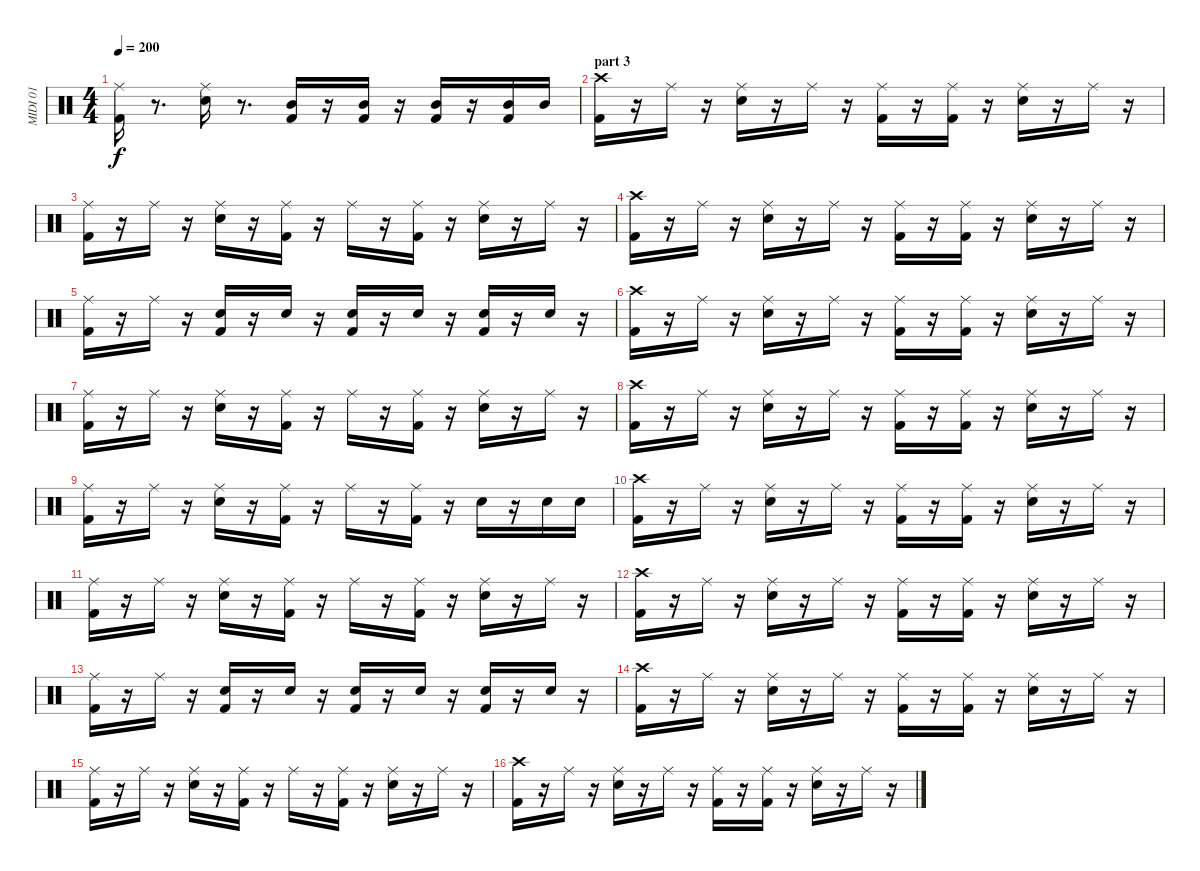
\track ("MIDI 01" "MIDI 01") {instrument percussion}
\staff {score}
\articulation defaults
\ts (4 4)
\tempo 200
\clef neutral
\ks c
("Kick (hit) 2" "Ride (middle)").16{dy f} r.8{d} ("Snare (hit) 2" "Ride (middle)").16 r.8{d} ("Mid Tom (hit)" "Kick (hit) 2").16 r.16 ("Mid Tom (hit)" "Kick (hit) 2").16 r.16 ("Mid Tom (hit)" "Kick (hit) 2").16 r.16 ("Mid Tom (hit)" "Kick (hit) 2").16 "Mid Tom (hit)".16 |
\section ("" "part 3")
("Kick (hit) 2" "Crash high (hit)").16 r.16 "Ride (middle)".16 r.16 ("Snare (hit) 2" "Ride (middle)").16 r.16 "Ride (middle)".16 r.16 ("Kick (hit) 2" "Ride (middle)").16 r.16 ("Kick (hit) 2" "Ride (middle)").16 r.16 ("Snare (hit) 2" "Ride (middle)").16 r.16 "Ride (middle)".16 r.16 |
("Kick (hit) 2" "Ride (middle)").16 r.16 "Ride (middle)".16 r.16 ("Snare (hit) 2" "Ride (middle)").16 r.16 ("Kick (hit) 2" "Ride (middle)").16 r.16 "Ride (middle)".16 r.16 ("Kick (hit) 2" "Ride (middle)").16 r.16 ("Snare (hit) 2" "Ride (middle)").16 r.16 "Ride (middle)".16 r.16 |
("Kick (hit) 2" "Crash high (hit)").16 r.16 "Ride (middle)".16 r.16 ("Snare (hit) 2" "Ride (middle)").16 r.16 "Ride (middle)".16 r.16 ("Kick (hit) 2" "Ride (middle)").16 r.16 ("Kick (hit) 2" "Ride (middle)").16 r.16 ("Snare (hit) 2" "Ride (middle)").16 r.16 "Ride (middle)".16 r.16 |
("Kick (hit) 2" "Ride (middle)").16 r.16 "Ride (middle)".16 r.16 ("Snare (hit) 2" "Kick (hit) 2").16 r.16 "Snare (hit) 2".16 r.16 ("Snare (hit) 2" "Kick (hit) 2").16 r.16 "Snare (hit) 2".16 r.16 ("Snare (hit) 2" "Kick (hit) 2").16 r.16 "Snare (hit) 2".16 r.16 |
("Kick (hit) 2" "Crash high (hit)").16 r.16 "Ride (middle)".16 r.16 ("Snare (hit) 2" "Ride (middle)").16 r.16 "Ride (middle)".16 r.16 ("Kick (hit) 2" "Ride (middle)").16 r.16 ("Kick (hit) 2" "Ride (middle)").16 r.16 ("Snare (hit) 2" "Ride (middle)").16 r.16 "Ride (middle)".16 r.16 |
("Kick (hit) 2" "Ride (middle)").16 r.16 "Ride (middle)".16 r.16 ("Snare (hit) 2" "Ride (middle)").16 r.16 ("Kick (hit) 2" "Ride (middle)").16 r.16 "Ride (middle)".16 r.16 ("Kick (hit) 2" "Ride (middle)").16 r.16 ("Snare (hit) 2" "Ride (middle)").16 r.16 "Ride (middle)".16 r.16 |
("Kick (hit) 2" "Crash high (hit)").16 r.16 "Ride (middle)".16 r.16 ("Snare (hit) 2" "Ride (middle)").16 r.16 "Ride (middle)".16 r.16 ("Kick (hit) 2" "Ride (middle)").16 r.16 ("Kick (hit) 2" "Ride (middle)").16 r.16 ("Snare (hit) 2" "Ride (middle)").16 r.16 "Ride (middle)".16 r.16 |
("Kick (hit) 2" "Ride (middle)").16 r.16 "Ride (middle)".16 r.16 ("Snare (hit) 2" "Ride (middle)").16 r.16 ("Kick (hit) 2" "Ride (middle)").16 r.16 "Ride (middle)".16 r.16 ("Kick (hit) 2" "Ride (middle)").16 r.16 "Snare (hit) 2".16 r.16 "Snare (hit) 2".16 "Snare (hit) 2".16 |
("Kick (hit) 2" "Crash high (hit)").16 r.16 "Ride (middle)".16 r.16 ("Snare (hit) 2" "Ride (middle)").16 r.16 "Ride (middle)".16 r.16 ("Kick (hit) 2" "Ride (middle)").16 r.16 ("Kick (hit) 2" "Ride (middle)").16 r.16 ("Snare (hit) 2" "Ride (middle)").16 r.16 "Ride (middle)".16 r.16 |
("Kick (hit) 2" "Ride (middle)").16 r.16 "Ride (middle)".16 r.16 ("Snare (hit) 2" "Ride (middle)").16 r.16 ("Kick (hit) 2" "Ride (middle)").16 r.16 "Ride (middle)".16 r.16 ("Kick (hit) 2" "Ride (middle)").16 r.16 ("Snare (hit) 2" "Ride (middle)").16 r.16 "Ride (middle)".16 r.16 |
("Kick (hit) 2" "Crash high (hit)").16 r.16 "Ride (middle)".16 r.16 ("Snare (hit) 2" "Ride (middle)").16 r.16 "Ride (middle)".16 r.16 ("Kick (hit) 2" "Ride (middle)").16 r.16 ("Kick (hit) 2" "Ride (middle)").16 r.16 ("Snare (hit) 2" "Ride (middle)").16 r.16 "Ride (middle)".16 r.16 |
("Kick (hit) 2" "Ride (middle)").16 r.16 "Ride (middle)".16 r.16 ("Snare (hit) 2" "Kick (hit) 2").16 r.16 "Snare (hit) 2".16 r.16 ("Snare (hit) 2" "Kick (hit) 2").16 r.16 "Snare (hit) 2".16 r.16 ("Snare (hit) 2" "Kick (hit) 2").16 r.16 "Snare (hit) 2".16 r.16 |
("Kick (hit) 2" "Crash high (hit)").16 r.16 "Ride (middle)".16 r.16 ("Snare (hit) 2" "Ride (middle)").16 r.16 "Ride (middle)".16 r.16 ("Kick (hit) 2" "Ride (middle)").16 r.16 ("Kick (hit) 2" "Ride (middle)").16 r.16 ("Snare (hit) 2" "Ride (middle)").16 r.16 "Ride (middle)".16 r.16 |
("Kick (hit) 2" "Ride (middle)").16 r.16 "Ride (middle)".16 r.16 ("Snare (hit) 2" "Ride (middle)").16 r.16 ("Kick (hit) 2" "Ride (middle)").16 r.16 "Ride (middle)".16 r.16 ("Kick (hit) 2" "Ride (middle)").16 r.16 ("Snare (hit) 2" "Ride (middle)").16 r.16 "Ride (middle)".16 r.16 |
("Kick (hit) 2" "Crash high (hit)").16 r.16 "Ride (middle)".16 r.16 ("Snare (hit) 2" "Ride (middle)").16 r.16 "Ride (middle)".16 r.16 ("Kick (hit) 2" "Ride (middle)").16 r.16 ("Kick (hit) 2" "Ride (middle)").16 r.16 ("Snare (hit) 2" "Ride (middle)").16 r.16 "Ride (middle)".16 r.16
